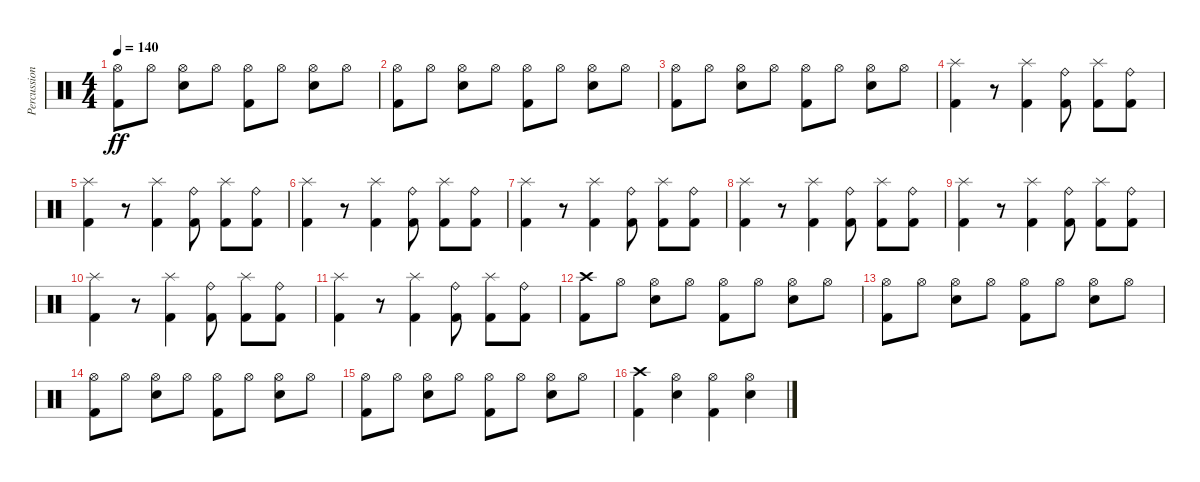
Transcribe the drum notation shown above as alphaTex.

\track ("Percussion" "Percussion") {instrument percussion}
\staff {score}
\articulation defaults
\ts (4 4)
\tempo 140
\clef neutral
\ks c
("Hi-Hat (open)" "Kick (hit) 2").8{dy ff} "Hi-Hat (open)".8 ("Hi-Hat (open)" "Snare (hit) 2").8 "Hi-Hat (open)".8 ("Hi-Hat (open)" "Kick (hit) 2").8 "Hi-Hat (open)".8 ("Hi-Hat (open)" "Snare (hit) 2").8 "Hi-Hat (open)".8 |
("Hi-Hat (open)" "Kick (hit) 2").8 "Hi-Hat (open)".8 ("Hi-Hat (open)" "Snare (hit) 2").8 "Hi-Hat (open)".8 ("Hi-Hat (open)" "Kick (hit) 2").8 "Hi-Hat (open)".8 ("Hi-Hat (open)" "Snare (hit) 2").8 "Hi-Hat (open)".8 |
("Hi-Hat (open)" "Kick (hit) 2").8 "Hi-Hat (open)".8 ("Hi-Hat (open)" "Snare (hit) 2").8 "Hi-Hat (open)".8 ("Hi-Hat (open)" "Kick (hit) 2").8 "Hi-Hat (open)".8 ("Hi-Hat (open)" "Snare (hit) 2").8 "Hi-Hat (open)".8 |
("Splash (hit)" "Kick (hit) 2").4 r.8 ("Splash (hit)" "Kick (hit) 2").4 ("Ride (bell)" "Kick (hit) 2").8 ("Splash (hit)" "Kick (hit) 2").8 ("Ride (bell)" "Kick (hit) 2").8 |
("Splash (hit)" "Kick (hit) 2").4 r.8 ("Splash (hit)" "Kick (hit) 2").4 ("Ride (bell)" "Kick (hit) 2").8 ("Splash (hit)" "Kick (hit) 2").8 ("Ride (bell)" "Kick (hit) 2").8 |
("Splash (hit)" "Kick (hit) 2").4 r.8 ("Splash (hit)" "Kick (hit) 2").4 ("Ride (bell)" "Kick (hit) 2").8 ("Splash (hit)" "Kick (hit) 2").8 ("Ride (bell)" "Kick (hit) 2").8 |
("Splash (hit)" "Kick (hit) 2").4 r.8 ("Splash (hit)" "Kick (hit) 2").4 ("Ride (bell)" "Kick (hit) 2").8 ("Splash (hit)" "Kick (hit) 2").8 ("Ride (bell)" "Kick (hit) 2").8 |
("Splash (hit)" "Kick (hit) 2").4 r.8 ("Splash (hit)" "Kick (hit) 2").4 ("Ride (bell)" "Kick (hit) 2").8 ("Splash (hit)" "Kick (hit) 2").8 ("Ride (bell)" "Kick (hit) 2").8 |
("Splash (hit)" "Kick (hit) 2").4 r.8 ("Splash (hit)" "Kick (hit) 2").4 ("Ride (bell)" "Kick (hit) 2").8 ("Splash (hit)" "Kick (hit) 2").8 ("Ride (bell)" "Kick (hit) 2").8 |
("Splash (hit)" "Kick (hit) 2").4 r.8 ("Splash (hit)" "Kick (hit) 2").4 ("Ride (bell)" "Kick (hit) 2").8 ("Splash (hit)" "Kick (hit) 2").8 ("Ride (bell)" "Kick (hit) 2").8 |
("Splash (hit)" "Kick (hit) 2").4 r.8 ("Splash (hit)" "Kick (hit) 2").4 ("Ride (bell)" "Kick (hit) 2").8 ("Splash (hit)" "Kick (hit) 2").8 ("Ride (bell)" "Kick (hit) 2").8 |
("Crash high (hit)" "Kick (hit) 2").8 "Hi-Hat (open)".8 ("Hi-Hat (open)" "Snare (hit) 2").8 "Hi-Hat (open)".8 ("Hi-Hat (open)" "Kick (hit) 2").8 "Hi-Hat (open)".8 ("Hi-Hat (open)" "Snare (hit) 2").8 "Hi-Hat (open)".8 |
("Hi-Hat (open)" "Kick (hit) 2").8 "Hi-Hat (open)".8 ("Hi-Hat (open)" "Snare (hit) 2").8 "Hi-Hat (open)".8 ("Hi-Hat (open)" "Kick (hit) 2").8 "Hi-Hat (open)".8 ("Hi-Hat (open)" "Snare (hit) 2").8 "Hi-Hat (open)".8 |
("Hi-Hat (open)" "Kick (hit) 2").8 "Hi-Hat (open)".8 ("Hi-Hat (open)" "Snare (hit) 2").8 "Hi-Hat (open)".8 ("Hi-Hat (open)" "Kick (hit) 2").8 "Hi-Hat (open)".8 ("Hi-Hat (open)" "Snare (hit) 2").8 "Hi-Hat (open)".8 |
("Hi-Hat (open)" "Kick (hit) 2").8 "Hi-Hat (open)".8 ("Hi-Hat (open)" "Snare (hit) 2").8 "Hi-Hat (open)".8 ("Hi-Hat (open)" "Kick (hit) 2").8 "Hi-Hat (open)".8 ("Hi-Hat (open)" "Snare (hit) 2").8 "Hi-Hat (open)".8 |
("Crash high (hit)" "Kick (hit) 2").4 ("Hi-Hat (open)" "Snare (hit) 2").4 ("Hi-Hat (open)" "Kick (hit) 2").4 ("Hi-Hat (open)" "Snare (hit) 2").4
